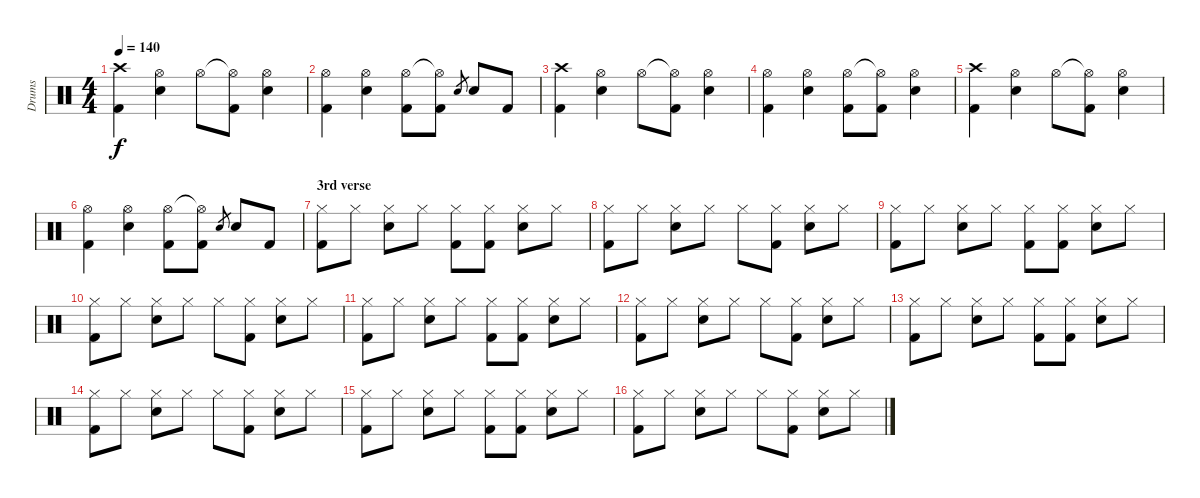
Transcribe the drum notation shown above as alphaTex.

\track ("Drums" "Drums") {instrument percussion}
\staff {score}
\articulation defaults
\ts (4 4)
\tempo 140
\clef neutral
\ks c
("Crash high (hit)" "Kick (hit) 2").4{dy f} ("Hi-Hat (open)" "Electric Snare (hit)").4 "Hi-Hat (open)".8 ("Hi-Hat (open)"{t} "Kick (hit) 2").8 ("Hi-Hat (open)" "Electric Snare (hit)").4 |
("Hi-Hat (open)" "Kick (hit) 2").4 ("Hi-Hat (open)" "Electric Snare (hit)").4 ("Hi-Hat (open)" "Kick (hit) 2").8 ("Hi-Hat (open)"{t} "Kick (hit) 2").8 "Electric Snare (hit)".8{gr} "Electric Snare (hit)".8 "Kick (hit) 2".8 |
("Crash high (hit)" "Kick (hit) 2").4 ("Hi-Hat (open)" "Electric Snare (hit)").4 "Hi-Hat (open)".8 ("Hi-Hat (open)"{t} "Kick (hit) 2").8 ("Hi-Hat (open)" "Electric Snare (hit)").4 |
("Hi-Hat (open)" "Kick (hit) 2").4 ("Hi-Hat (open)" "Electric Snare (hit)").4 ("Hi-Hat (open)" "Kick (hit) 2").8 ("Hi-Hat (open)"{t} "Kick (hit) 2").8 ("Hi-Hat (open)" "Electric Snare (hit)").4 |
("Crash high (hit)" "Kick (hit) 2").4 ("Hi-Hat (open)" "Electric Snare (hit)").4 "Hi-Hat (open)".8 ("Hi-Hat (open)"{t} "Kick (hit) 2").8 ("Hi-Hat (open)" "Electric Snare (hit)").4 |
("Hi-Hat (open)" "Kick (hit) 2").4 ("Hi-Hat (open)" "Electric Snare (hit)").4 ("Hi-Hat (open)" "Kick (hit) 2").8 ("Hi-Hat (open)"{t} "Kick (hit) 2").8 "Electric Snare (hit)".8{gr} "Electric Snare (hit)".8 "Kick (hit) 2".8 |
\section ("" "3rd verse")
("Hi-Hat (closed)" "Kick (hit) 2").8 "Hi-Hat (closed)".8 ("Hi-Hat (closed)" "Electric Snare (hit)").8 "Hi-Hat (closed)".8 ("Hi-Hat (closed)" "Kick (hit) 2").8 ("Hi-Hat (closed)" "Kick (hit) 2").8 ("Hi-Hat (closed)" "Electric Snare (hit)").8 "Hi-Hat (closed)".8 |
("Hi-Hat (closed)" "Kick (hit) 2").8 "Hi-Hat (closed)".8 ("Hi-Hat (closed)" "Electric Snare (hit)").8 "Hi-Hat (closed)".8 "Hi-Hat (closed)".8 ("Hi-Hat (closed)" "Kick (hit) 2").8 ("Hi-Hat (closed)" "Electric Snare (hit)").8 "Hi-Hat (closed)".8 |
("Hi-Hat (closed)" "Kick (hit) 2").8 "Hi-Hat (closed)".8 ("Hi-Hat (closed)" "Electric Snare (hit)").8 "Hi-Hat (closed)".8 ("Hi-Hat (closed)" "Kick (hit) 2").8 ("Hi-Hat (closed)" "Kick (hit) 2").8 ("Hi-Hat (closed)" "Electric Snare (hit)").8 "Hi-Hat (closed)".8 |
("Hi-Hat (closed)" "Kick (hit) 2").8 "Hi-Hat (closed)".8 ("Hi-Hat (closed)" "Electric Snare (hit)").8 "Hi-Hat (closed)".8 "Hi-Hat (closed)".8 ("Hi-Hat (closed)" "Kick (hit) 2").8 ("Hi-Hat (closed)" "Electric Snare (hit)").8 "Hi-Hat (closed)".8 |
("Hi-Hat (closed)" "Kick (hit) 2").8 "Hi-Hat (closed)".8 ("Hi-Hat (closed)" "Electric Snare (hit)").8 "Hi-Hat (closed)".8 ("Hi-Hat (closed)" "Kick (hit) 2").8 ("Hi-Hat (closed)" "Kick (hit) 2").8 ("Hi-Hat (closed)" "Electric Snare (hit)").8 "Hi-Hat (closed)".8 |
("Hi-Hat (closed)" "Kick (hit) 2").8 "Hi-Hat (closed)".8 ("Hi-Hat (closed)" "Electric Snare (hit)").8 "Hi-Hat (closed)".8 "Hi-Hat (closed)".8 ("Hi-Hat (closed)" "Kick (hit) 2").8 ("Hi-Hat (closed)" "Electric Snare (hit)").8 "Hi-Hat (closed)".8 |
("Hi-Hat (closed)" "Kick (hit) 2").8 "Hi-Hat (closed)".8 ("Hi-Hat (closed)" "Electric Snare (hit)").8 "Hi-Hat (closed)".8 ("Hi-Hat (closed)" "Kick (hit) 2").8 ("Hi-Hat (closed)" "Kick (hit) 2").8 ("Hi-Hat (closed)" "Electric Snare (hit)").8 "Hi-Hat (closed)".8 |
("Hi-Hat (closed)" "Kick (hit) 2").8 "Hi-Hat (closed)".8 ("Hi-Hat (closed)" "Electric Snare (hit)").8 "Hi-Hat (closed)".8 "Hi-Hat (closed)".8 ("Hi-Hat (closed)" "Kick (hit) 2").8 ("Hi-Hat (closed)" "Electric Snare (hit)").8 "Hi-Hat (closed)".8 |
("Hi-Hat (closed)" "Kick (hit) 2").8 "Hi-Hat (closed)".8 ("Hi-Hat (closed)" "Electric Snare (hit)").8 "Hi-Hat (closed)".8 ("Hi-Hat (closed)" "Kick (hit) 2").8 ("Hi-Hat (closed)" "Kick (hit) 2").8 ("Hi-Hat (closed)" "Electric Snare (hit)").8 "Hi-Hat (closed)".8 |
("Hi-Hat (closed)" "Kick (hit) 2").8 "Hi-Hat (closed)".8 ("Hi-Hat (closed)" "Electric Snare (hit)").8 "Hi-Hat (closed)".8 "Hi-Hat (closed)".8 ("Hi-Hat (closed)" "Kick (hit) 2").8 ("Hi-Hat (closed)" "Electric Snare (hit)").8 "Hi-Hat (closed)".8
